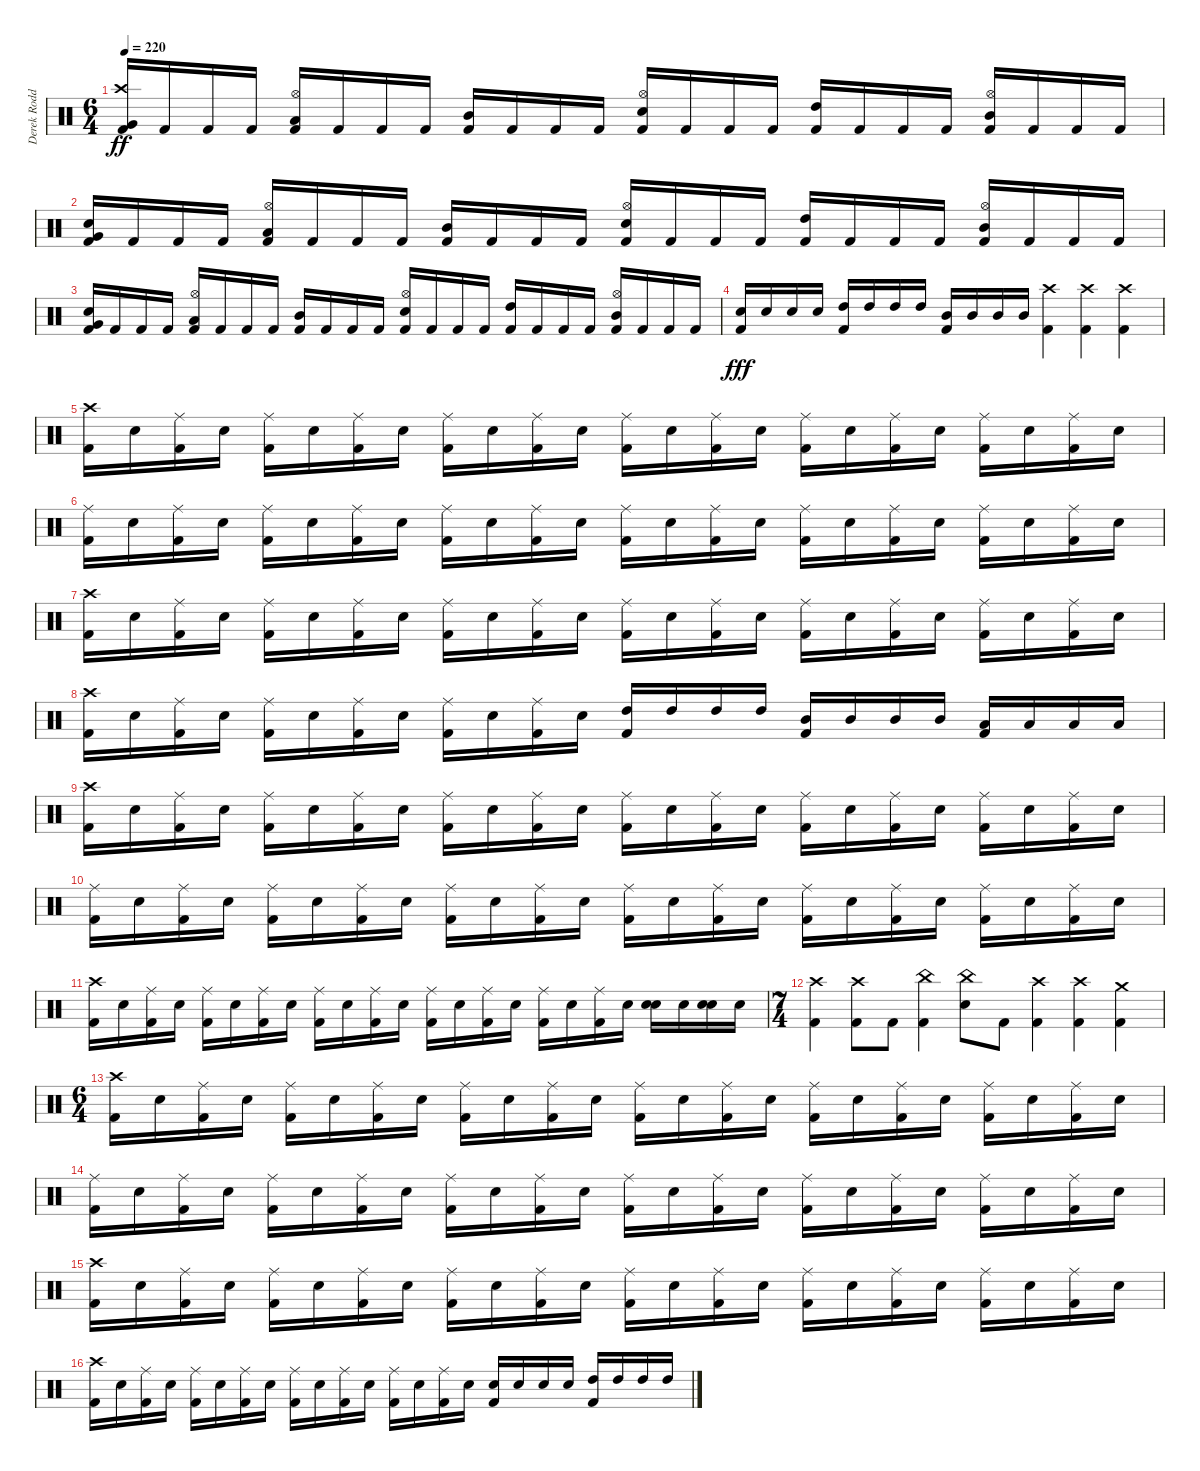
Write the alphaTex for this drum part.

\track ("Derek Roddy" "Derek Rodd") {instrument percussion}
\staff {score}
\articulation defaults
\ts (6 4)
\tempo 220
\clef neutral
\ks c
("Very Low Tom (hit)" "Crash high (hit)" "Kick (hit) 2").16{dy ff} "Kick (hit) 2".16 "Kick (hit) 2".16 "Kick (hit) 2".16 ("Hi-Hat (open)" "Low Tom (hit)" "Kick (hit) 2").16 "Kick (hit) 2".16 "Kick (hit) 2".16 "Kick (hit) 2".16 ("Mid Tom (hit)" "Kick (hit) 2").16 "Kick (hit) 2".16 "Kick (hit) 2".16 "Kick (hit) 2".16 ("Hi-Hat (open)" "Snare (hit) 2" "Kick (hit) 2").16 "Kick (hit) 2".16 "Kick (hit) 2".16 "Kick (hit) 2".16 ("High Tom (hit)" "Kick (hit) 2").16 "Kick (hit) 2".16 "Kick (hit) 2".16 "Kick (hit) 2".16 ("Hi-Hat (open)" "Mid Tom (hit)" "Kick (hit) 2").16 "Kick (hit) 2".16 "Kick (hit) 2".16 "Kick (hit) 2".16 |
("Very Low Tom (hit)" "Snare (hit)" "Kick (hit) 2").16 "Kick (hit) 2".16 "Kick (hit) 2".16 "Kick (hit) 2".16 ("Hi-Hat (open)" "Low Tom (hit)" "Kick (hit) 2").16 "Kick (hit) 2".16 "Kick (hit) 2".16 "Kick (hit) 2".16 ("Mid Tom (hit)" "Kick (hit) 2").16 "Kick (hit) 2".16 "Kick (hit) 2".16 "Kick (hit) 2".16 ("Hi-Hat (open)" "Snare (hit) 2" "Kick (hit) 2").16 "Kick (hit) 2".16 "Kick (hit) 2".16 "Kick (hit) 2".16 ("High Tom (hit)" "Kick (hit) 2").16 "Kick (hit) 2".16 "Kick (hit) 2".16 "Kick (hit) 2".16 ("Hi-Hat (open)" "Mid Tom (hit)" "Kick (hit) 2").16 "Kick (hit) 2".16 "Kick (hit) 2".16 "Kick (hit) 2".16 |
("Very Low Tom (hit)" "Snare (hit)" "Kick (hit) 2").16 "Kick (hit) 2".16 "Kick (hit) 2".16 "Kick (hit) 2".16 ("Hi-Hat (open)" "Low Tom (hit)" "Kick (hit) 2").16 "Kick (hit) 2".16 "Kick (hit) 2".16 "Kick (hit) 2".16 ("Mid Tom (hit)" "Kick (hit) 2").16 "Kick (hit) 2".16 "Kick (hit) 2".16 "Kick (hit) 2".16 ("Hi-Hat (open)" "Snare (hit) 2" "Kick (hit) 2").16 "Kick (hit) 2".16 "Kick (hit) 2".16 "Kick (hit) 2".16 ("High Tom (hit)" "Kick (hit) 2").16 "Kick (hit) 2".16 "Kick (hit) 2".16 "Kick (hit) 2".16 ("Hi-Hat (open)" "Mid Tom (hit)" "Kick (hit) 2").16 "Kick (hit) 2".16 "Kick (hit) 2".16 "Kick (hit) 2".16 |
("Snare (hit) 2" "Kick (hit) 2").16{dy fff} "Snare (hit) 2".16 "Snare (hit) 2".16 "Snare (hit) 2".16 ("High Tom (hit)" "Kick (hit) 2").16 "High Tom (hit)".16 "High Tom (hit)".16 "High Tom (hit)".16 ("Mid Tom (hit)" "Kick (hit) 2").16 "Mid Tom (hit)".16 "Mid Tom (hit)".16 "Mid Tom (hit)".16 ("Kick (hit) 2" "Crash high (hit)").4 ("Kick (hit) 2" "Crash high (hit)").4 ("Kick (hit) 2" "Crash high (hit)").4 |
("Crash high (hit)" "Kick (hit) 2").16 "Snare (hit) 2".16 ("Ride (middle)" "Kick (hit) 2").16 "Snare (hit) 2".16 ("Ride (middle)" "Kick (hit) 2").16 "Snare (hit) 2".16 ("Ride (middle)" "Kick (hit) 2").16 "Snare (hit) 2".16 ("Ride (middle)" "Kick (hit) 2").16 "Snare (hit) 2".16 ("Ride (middle)" "Kick (hit) 2").16 "Snare (hit) 2".16 ("Ride (middle)" "Kick (hit) 2").16 "Snare (hit) 2".16 ("Ride (middle)" "Kick (hit) 2").16 "Snare (hit) 2".16 ("Ride (middle)" "Kick (hit) 2").16 "Snare (hit) 2".16 ("Ride (middle)" "Kick (hit) 2").16 "Snare (hit) 2".16 ("Ride (middle)" "Kick (hit) 2").16 "Snare (hit) 2".16 ("Ride (middle)" "Kick (hit) 2").16 "Snare (hit) 2".16 |
("Ride (middle)" "Kick (hit) 2").16 "Snare (hit) 2".16 ("Ride (middle)" "Kick (hit) 2").16 "Snare (hit) 2".16 ("Ride (middle)" "Kick (hit) 2").16 "Snare (hit) 2".16 ("Ride (middle)" "Kick (hit) 2").16 "Snare (hit) 2".16 ("Ride (middle)" "Kick (hit) 2").16 "Snare (hit) 2".16 ("Ride (middle)" "Kick (hit) 2").16 "Snare (hit) 2".16 ("Ride (middle)" "Kick (hit) 2").16 "Snare (hit) 2".16 ("Ride (middle)" "Kick (hit) 2").16 "Snare (hit) 2".16 ("Ride (middle)" "Kick (hit) 2").16 "Snare (hit) 2".16 ("Ride (middle)" "Kick (hit) 2").16 "Snare (hit) 2".16 ("Ride (middle)" "Kick (hit) 2").16 "Snare (hit) 2".16 ("Ride (middle)" "Kick (hit) 2").16 "Snare (hit) 2".16 |
("Crash high (hit)" "Kick (hit) 2").16 "Snare (hit) 2".16 ("Ride (middle)" "Kick (hit) 2").16 "Snare (hit) 2".16 ("Ride (middle)" "Kick (hit) 2").16 "Snare (hit) 2".16 ("Ride (middle)" "Kick (hit) 2").16 "Snare (hit) 2".16 ("Ride (middle)" "Kick (hit) 2").16 "Snare (hit) 2".16 ("Ride (middle)" "Kick (hit) 2").16 "Snare (hit) 2".16 ("Ride (middle)" "Kick (hit) 2").16 "Snare (hit) 2".16 ("Ride (middle)" "Kick (hit) 2").16 "Snare (hit) 2".16 ("Ride (middle)" "Kick (hit) 2").16 "Snare (hit) 2".16 ("Ride (middle)" "Kick (hit) 2").16 "Snare (hit) 2".16 ("Ride (middle)" "Kick (hit) 2").16 "Snare (hit) 2".16 ("Ride (middle)" "Kick (hit) 2").16 "Snare (hit) 2".16 |
("Crash high (hit)" "Kick (hit) 2").16 "Snare (hit) 2".16 ("Ride (middle)" "Kick (hit) 2").16 "Snare (hit) 2".16 ("Ride (middle)" "Kick (hit) 2").16 "Snare (hit) 2".16 ("Ride (middle)" "Kick (hit) 2").16 "Snare (hit) 2".16 ("Ride (middle)" "Kick (hit) 2").16 "Snare (hit) 2".16 ("Ride (middle)" "Kick (hit) 2").16 "Snare (hit) 2".16 ("High Tom (hit)" "Kick (hit) 2").16 "High Tom (hit)".16 "High Tom (hit)".16 "High Tom (hit)".16 ("Mid Tom (hit)" "Kick (hit) 2").16 "Mid Tom (hit)".16 "Mid Tom (hit)".16 "Mid Tom (hit)".16 ("Low Tom (hit)" "Kick (hit) 2").16 "Low Tom (hit)".16 "Low Tom (hit)".16 "Low Tom (hit)".16 |
("Crash high (hit)" "Kick (hit) 2").16 "Snare (hit) 2".16 ("Ride (middle)" "Kick (hit) 2").16 "Snare (hit) 2".16 ("Ride (middle)" "Kick (hit) 2").16 "Snare (hit) 2".16 ("Ride (middle)" "Kick (hit) 2").16 "Snare (hit) 2".16 ("Ride (middle)" "Kick (hit) 2").16 "Snare (hit) 2".16 ("Ride (middle)" "Kick (hit) 2").16 "Snare (hit) 2".16 ("Ride (middle)" "Kick (hit) 2").16 "Snare (hit) 2".16 ("Ride (middle)" "Kick (hit) 2").16 "Snare (hit) 2".16 ("Ride (middle)" "Kick (hit) 2").16 "Snare (hit) 2".16 ("Ride (middle)" "Kick (hit) 2").16 "Snare (hit) 2".16 ("Ride (middle)" "Kick (hit) 2").16 "Snare (hit) 2".16 ("Ride (middle)" "Kick (hit) 2").16 "Snare (hit) 2".16 |
("Ride (middle)" "Kick (hit) 2").16 "Snare (hit) 2".16 ("Ride (middle)" "Kick (hit) 2").16 "Snare (hit) 2".16 ("Ride (middle)" "Kick (hit) 2").16 "Snare (hit) 2".16 ("Ride (middle)" "Kick (hit) 2").16 "Snare (hit) 2".16 ("Ride (middle)" "Kick (hit) 2").16 "Snare (hit) 2".16 ("Ride (middle)" "Kick (hit) 2").16 "Snare (hit) 2".16 ("Ride (middle)" "Kick (hit) 2").16 "Snare (hit) 2".16 ("Ride (middle)" "Kick (hit) 2").16 "Snare (hit) 2".16 ("Ride (middle)" "Kick (hit) 2").16 "Snare (hit) 2".16 ("Ride (middle)" "Kick (hit) 2").16 "Snare (hit) 2".16 ("Ride (middle)" "Kick (hit) 2").16 "Snare (hit) 2".16 ("Ride (middle)" "Kick (hit) 2").16 "Snare (hit) 2".16 |
("Crash high (hit)" "Kick (hit) 2").16 "Snare (hit) 2".16 ("Ride (middle)" "Kick (hit) 2").16 "Snare (hit) 2".16 ("Ride (middle)" "Kick (hit) 2").16 "Snare (hit) 2".16 ("Ride (middle)" "Kick (hit) 2").16 "Snare (hit) 2".16 ("Ride (middle)" "Kick (hit) 2").16 "Snare (hit) 2".16 ("Ride (middle)" "Kick (hit) 2").16 "Snare (hit) 2".16 ("Ride (middle)" "Kick (hit) 2").16 "Snare (hit) 2".16 ("Ride (middle)" "Kick (hit) 2").16 "Snare (hit) 2".16 ("Ride (middle)" "Kick (hit) 2").16 "Snare (hit) 2".16 ("Ride (middle)" "Kick (hit) 2").16 "Snare (hit) 2".16 ("Snare (hit)" "Snare (hit) 2").16 "Snare (hit) 2".16 ("Snare (hit)" "Snare (hit) 2").16 "Snare (hit) 2".16 |
\ts (7 4)
("Crash high (hit)" "Kick (hit) 2").4 ("Crash high (hit)" "Kick (hit) 2").8 "Kick (hit) 2".8 ("China (hit)" "Kick (hit) 2").4 ("China (hit)" "Snare (hit) 2").8 "Kick (hit) 2".8 ("Crash high (hit)" "Kick (hit) 2").4 ("Crash high (hit)" "Kick (hit) 2").4 ("Kick (hit) 2" "Crash medium (hit)").4 |
\ts (6 4)
("Crash high (hit)" "Kick (hit) 2").16 "Snare (hit) 2".16 ("Ride (middle)" "Kick (hit) 2").16 "Snare (hit) 2".16 ("Ride (middle)" "Kick (hit) 2").16 "Snare (hit) 2".16 ("Ride (middle)" "Kick (hit) 2").16 "Snare (hit) 2".16 ("Ride (middle)" "Kick (hit) 2").16 "Snare (hit) 2".16 ("Ride (middle)" "Kick (hit) 2").16 "Snare (hit) 2".16 ("Ride (middle)" "Kick (hit) 2").16 "Snare (hit) 2".16 ("Ride (middle)" "Kick (hit) 2").16 "Snare (hit) 2".16 ("Ride (middle)" "Kick (hit) 2").16 "Snare (hit) 2".16 ("Ride (middle)" "Kick (hit) 2").16 "Snare (hit) 2".16 ("Ride (middle)" "Kick (hit) 2").16 "Snare (hit) 2".16 ("Ride (middle)" "Kick (hit) 2").16 "Snare (hit) 2".16 |
("Ride (middle)" "Kick (hit) 2").16 "Snare (hit) 2".16 ("Ride (middle)" "Kick (hit) 2").16 "Snare (hit) 2".16 ("Ride (middle)" "Kick (hit) 2").16 "Snare (hit) 2".16 ("Ride (middle)" "Kick (hit) 2").16 "Snare (hit) 2".16 ("Ride (middle)" "Kick (hit) 2").16 "Snare (hit) 2".16 ("Ride (middle)" "Kick (hit) 2").16 "Snare (hit) 2".16 ("Ride (middle)" "Kick (hit) 2").16 "Snare (hit) 2".16 ("Ride (middle)" "Kick (hit) 2").16 "Snare (hit) 2".16 ("Ride (middle)" "Kick (hit) 2").16 "Snare (hit) 2".16 ("Ride (middle)" "Kick (hit) 2").16 "Snare (hit) 2".16 ("Ride (middle)" "Kick (hit) 2").16 "Snare (hit) 2".16 ("Ride (middle)" "Kick (hit) 2").16 "Snare (hit) 2".16 |
("Crash high (hit)" "Kick (hit) 2").16 "Snare (hit) 2".16 ("Ride (middle)" "Kick (hit) 2").16 "Snare (hit) 2".16 ("Ride (middle)" "Kick (hit) 2").16 "Snare (hit) 2".16 ("Ride (middle)" "Kick (hit) 2").16 "Snare (hit) 2".16 ("Ride (middle)" "Kick (hit) 2").16 "Snare (hit) 2".16 ("Ride (middle)" "Kick (hit) 2").16 "Snare (hit) 2".16 ("Ride (middle)" "Kick (hit) 2").16 "Snare (hit) 2".16 ("Ride (middle)" "Kick (hit) 2").16 "Snare (hit) 2".16 ("Ride (middle)" "Kick (hit) 2").16 "Snare (hit) 2".16 ("Ride (middle)" "Kick (hit) 2").16 "Snare (hit) 2".16 ("Ride (middle)" "Kick (hit) 2").16 "Snare (hit) 2".16 ("Ride (middle)" "Kick (hit) 2").16 "Snare (hit) 2".16 |
("Crash high (hit)" "Kick (hit) 2").16 "Snare (hit) 2".16 ("Ride (middle)" "Kick (hit) 2").16 "Snare (hit) 2".16 ("Ride (middle)" "Kick (hit) 2").16 "Snare (hit) 2".16 ("Ride (middle)" "Kick (hit) 2").16 "Snare (hit) 2".16 ("Ride (middle)" "Kick (hit) 2").16 "Snare (hit) 2".16 ("Ride (middle)" "Kick (hit) 2").16 "Snare (hit) 2".16 ("Ride (middle)" "Kick (hit) 2").16 "Snare (hit) 2".16 ("Ride (middle)" "Kick (hit) 2").16 "Snare (hit) 2".16 ("Snare (hit) 2" "Kick (hit) 2").16 "Snare (hit) 2".16 "Snare (hit) 2".16 "Snare (hit) 2".16 ("High Tom (hit)" "Kick (hit) 2").16 "High Tom (hit)".16 "High Tom (hit)".16 "High Tom (hit)".16
